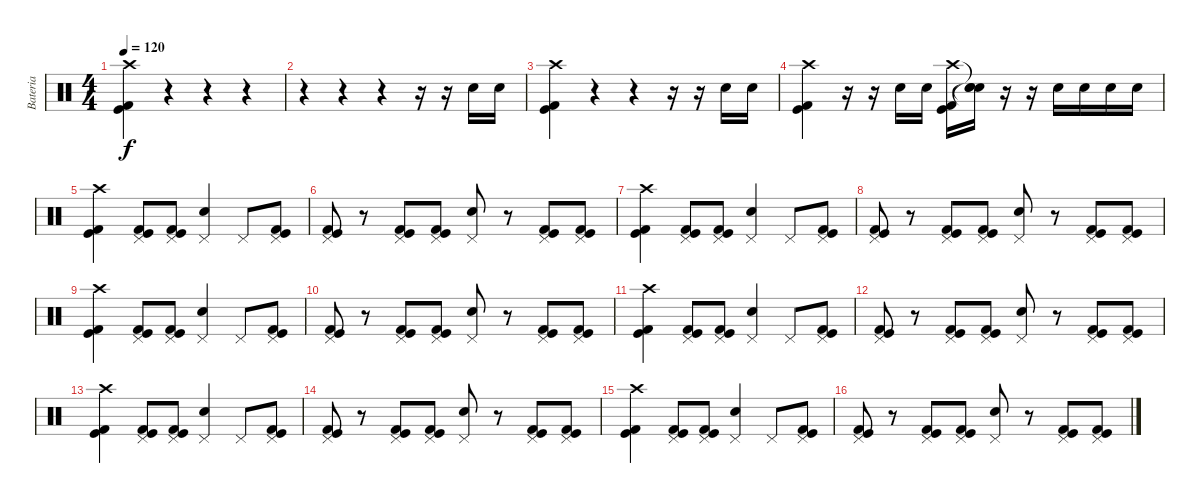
\track ("Bateria" "Bateria") {instrument percussion}
\staff {score}
\articulation defaults
\ts (4 4)
\tempo 120
\clef neutral
\ks c
("Kick (hit) 2" "Kick (hit)" "Crash high (hit)").4{dy f} r.4 r.4 r.4 |
r.4 r.4 r.4 r.16 r.16 "Electric Snare (hit)".16 "Electric Snare (hit)".16 |
("Kick (hit) 2" "Kick (hit)" "Crash high (hit)").4 r.4 r.4 r.16 r.16 "Electric Snare (hit)".16 "Electric Snare (hit)".16 |
("Kick (hit) 2" "Kick (hit)" "Crash high (hit)").4 r.16 r.16 "Electric Snare (hit)".16 "Electric Snare (hit)".16 ("Kick (hit) 2" "Kick (hit)" "Crash high (hit)").16 ("Snare (hit)"{t} "Snare (hit)"{t} "Snare (hit)"{t}).16 r.16 r.16 "Electric Snare (hit)".16 "Electric Snare (hit)".16 "Electric Snare (hit)".16 "Electric Snare (hit)".16 |
("Kick (hit) 2" "Kick (hit)" "Crash high (hit)").4 ("Kick (hit) 2" "Kick (hit)" "Pedal Hi-Hat (hit)").8 ("Kick (hit)" "Kick (hit) 2" "Pedal Hi-Hat (hit)").8 ("Electric Snare (hit)" "Pedal Hi-Hat (hit)").4 "Pedal Hi-Hat (hit)".8 ("Kick (hit) 2" "Kick (hit)" "Pedal Hi-Hat (hit)").8 |
("Kick (hit) 2" "Kick (hit)" "Pedal Hi-Hat (hit)").8 r.8 ("Kick (hit)" "Kick (hit) 2" "Pedal Hi-Hat (hit)").8 ("Kick (hit)" "Kick (hit) 2" "Pedal Hi-Hat (hit)").8 ("Electric Snare (hit)" "Pedal Hi-Hat (hit)").8 r.8 ("Kick (hit)" "Kick (hit) 2" "Pedal Hi-Hat (hit)").8 ("Kick (hit)" "Kick (hit) 2" "Pedal Hi-Hat (hit)").8 |
("Kick (hit) 2" "Kick (hit)" "Crash high (hit)").4 ("Kick (hit) 2" "Kick (hit)" "Pedal Hi-Hat (hit)").8 ("Kick (hit)" "Kick (hit) 2" "Pedal Hi-Hat (hit)").8 ("Electric Snare (hit)" "Pedal Hi-Hat (hit)").4 "Pedal Hi-Hat (hit)".8 ("Kick (hit) 2" "Kick (hit)" "Pedal Hi-Hat (hit)").8 |
("Kick (hit) 2" "Kick (hit)" "Pedal Hi-Hat (hit)").8 r.8 ("Kick (hit)" "Kick (hit) 2" "Pedal Hi-Hat (hit)").8 ("Kick (hit)" "Kick (hit) 2" "Pedal Hi-Hat (hit)").8 ("Electric Snare (hit)" "Pedal Hi-Hat (hit)").8 r.8 ("Kick (hit)" "Kick (hit) 2" "Pedal Hi-Hat (hit)").8 ("Kick (hit)" "Kick (hit) 2" "Pedal Hi-Hat (hit)").8 |
("Kick (hit) 2" "Kick (hit)" "Crash high (hit)").4 ("Kick (hit) 2" "Kick (hit)" "Pedal Hi-Hat (hit)").8 ("Kick (hit)" "Kick (hit) 2" "Pedal Hi-Hat (hit)").8 ("Electric Snare (hit)" "Pedal Hi-Hat (hit)").4 "Pedal Hi-Hat (hit)".8 ("Kick (hit) 2" "Kick (hit)" "Pedal Hi-Hat (hit)").8 |
("Kick (hit) 2" "Kick (hit)" "Pedal Hi-Hat (hit)").8 r.8 ("Kick (hit)" "Kick (hit) 2" "Pedal Hi-Hat (hit)").8 ("Kick (hit)" "Kick (hit) 2" "Pedal Hi-Hat (hit)").8 ("Electric Snare (hit)" "Pedal Hi-Hat (hit)").8 r.8 ("Kick (hit)" "Kick (hit) 2" "Pedal Hi-Hat (hit)").8 ("Kick (hit)" "Kick (hit) 2" "Pedal Hi-Hat (hit)").8 |
("Kick (hit) 2" "Kick (hit)" "Crash high (hit)").4 ("Kick (hit) 2" "Kick (hit)" "Pedal Hi-Hat (hit)").8 ("Kick (hit)" "Kick (hit) 2" "Pedal Hi-Hat (hit)").8 ("Electric Snare (hit)" "Pedal Hi-Hat (hit)").4 "Pedal Hi-Hat (hit)".8 ("Kick (hit) 2" "Kick (hit)" "Pedal Hi-Hat (hit)").8 |
("Kick (hit) 2" "Kick (hit)" "Pedal Hi-Hat (hit)").8 r.8 ("Kick (hit)" "Kick (hit) 2" "Pedal Hi-Hat (hit)").8 ("Kick (hit)" "Kick (hit) 2" "Pedal Hi-Hat (hit)").8 ("Electric Snare (hit)" "Pedal Hi-Hat (hit)").8 r.8 ("Kick (hit)" "Kick (hit) 2" "Pedal Hi-Hat (hit)").8 ("Kick (hit)" "Kick (hit) 2" "Pedal Hi-Hat (hit)").8 |
("Kick (hit) 2" "Kick (hit)" "Crash high (hit)").4 ("Kick (hit) 2" "Kick (hit)" "Pedal Hi-Hat (hit)").8 ("Kick (hit)" "Kick (hit) 2" "Pedal Hi-Hat (hit)").8 ("Electric Snare (hit)" "Pedal Hi-Hat (hit)").4 "Pedal Hi-Hat (hit)".8 ("Kick (hit) 2" "Kick (hit)" "Pedal Hi-Hat (hit)").8 |
("Kick (hit) 2" "Kick (hit)" "Pedal Hi-Hat (hit)").8 r.8 ("Kick (hit)" "Kick (hit) 2" "Pedal Hi-Hat (hit)").8 ("Kick (hit)" "Kick (hit) 2" "Pedal Hi-Hat (hit)").8 ("Electric Snare (hit)" "Pedal Hi-Hat (hit)").8 r.8 ("Kick (hit)" "Kick (hit) 2" "Pedal Hi-Hat (hit)").8 ("Kick (hit)" "Kick (hit) 2" "Pedal Hi-Hat (hit)").8 |
("Kick (hit) 2" "Kick (hit)" "Crash high (hit)").4 ("Kick (hit) 2" "Kick (hit)" "Pedal Hi-Hat (hit)").8 ("Kick (hit)" "Kick (hit) 2" "Pedal Hi-Hat (hit)").8 ("Electric Snare (hit)" "Pedal Hi-Hat (hit)").4 "Pedal Hi-Hat (hit)".8 ("Kick (hit) 2" "Kick (hit)" "Pedal Hi-Hat (hit)").8 |
("Kick (hit) 2" "Kick (hit)" "Pedal Hi-Hat (hit)").8 r.8 ("Kick (hit)" "Kick (hit) 2" "Pedal Hi-Hat (hit)").8 ("Kick (hit)" "Kick (hit) 2" "Pedal Hi-Hat (hit)").8 ("Electric Snare (hit)" "Pedal Hi-Hat (hit)").8 r.8 ("Kick (hit)" "Kick (hit) 2" "Pedal Hi-Hat (hit)").8 ("Kick (hit)" "Kick (hit) 2" "Pedal Hi-Hat (hit)").8
